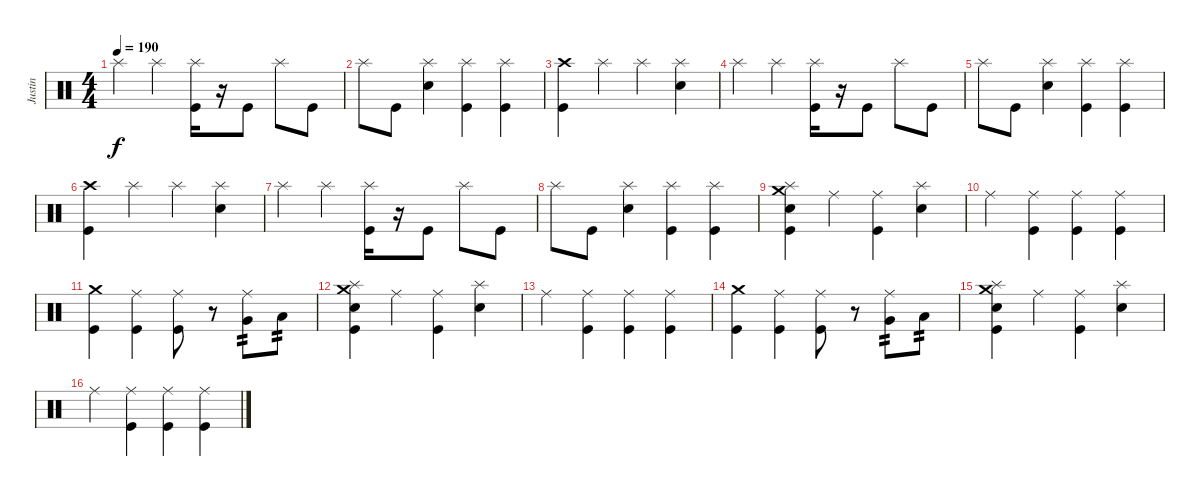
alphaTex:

\track ("Justin" "Justin") {instrument percussion}
\staff {score}
\articulation defaults
\ts (4 4)
\tempo 190
\clef neutral
\ks c "Splash (hit)".4{dy f} "Splash (hit)".4
("Splash (hit)" "Kick (hit)").16 r.16 "Kick (hit)".8 "Splash (hit)".8 "Kick (hit)".8 |
"Splash (hit)".8 "Kick (hit)".8 ("Splash (hit)" "Electric Snare (hit)").4 ("Splash (hit)" "Kick (hit)").4 ("Splash (hit)" "Kick (hit)").4 |
("Crash high (hit)" "Kick (hit)").4 "Splash (hit)".4 "Splash (hit)".4 ("Splash (hit)" "Electric Snare (hit)").4 |
"Splash (hit)".4 "Splash (hit)".4 ("Splash (hit)" "Kick (hit)").16 r.16 "Kick (hit)".8 "Splash (hit)".8 "Kick (hit)".8 |
"Splash (hit)".8 "Kick (hit)".8 ("Splash (hit)" "Electric Snare (hit)").4 ("Splash (hit)" "Kick (hit)").4 ("Splash (hit)" "Kick (hit)").4 |
("Crash high (hit)" "Kick (hit)").4 "Splash (hit)".4 "Splash (hit)".4 ("Splash (hit)" "Electric Snare (hit)").4 |
"Splash (hit)".4 "Splash (hit)".4 ("Splash (hit)" "Kick (hit)").16 r.16 "Kick (hit)".8 "Splash (hit)".8 "Kick (hit)".8 |
"Splash (hit)".8 "Kick (hit)".8 ("Splash (hit)" "Electric Snare (hit)").4 ("Splash (hit)" "Kick (hit)").4 ("Splash (hit)" "Kick (hit)").4 |
("Splash (hit)" "Crash medium (hit)" "Electric Snare (hit)" "Kick (hit)").4 "Ride (middle)".4 ("Ride (middle)" "Kick (hit)").4 ("Splash (hit)" "Electric Snare (hit)").4 |
"Ride (middle)".4 ("Ride (middle)" "Kick (hit)").4 ("Ride (middle)" "Kick (hit)").4 ("Ride (middle)" "Kick (hit)").4 |
("Crash medium (hit)" "Kick (hit)").4 ("Ride (middle)" "Kick (hit)").4 ("Ride (middle)" "Kick (hit)").8 r.8 ("Ride (middle)" "Very Low Tom (hit)").8{tp 2} "Low Floor Tom (hit)".8{tp 2} |
("Splash (hit)" "Crash medium (hit)" "Electric Snare (hit)" "Kick (hit)").4 "Ride (middle)".4 ("Ride (middle)" "Kick (hit)").4 ("Splash (hit)" "Electric Snare (hit)").4 |
"Ride (middle)".4 ("Ride (middle)" "Kick (hit)").4 ("Ride (middle)" "Kick (hit)").4 ("Ride (middle)" "Kick (hit)").4 |
("Crash medium (hit)" "Kick (hit)").4 ("Ride (middle)" "Kick (hit)").4 ("Ride (middle)" "Kick (hit)").8 r.8 ("Ride (middle)" "Very Low Tom (hit)").8{tp 2} "Low Floor Tom (hit)".8{tp 2} |
("Splash (hit)" "Crash medium (hit)" "Electric Snare (hit)" "Kick (hit)").4 "Ride (middle)".4 ("Ride (middle)" "Kick (hit)").4 ("Splash (hit)" "Electric Snare (hit)").4 |
"Ride (middle)".4 ("Ride (middle)" "Kick (hit)").4 ("Ride (middle)" "Kick (hit)").4 ("Ride (middle)" "Kick (hit)").4
